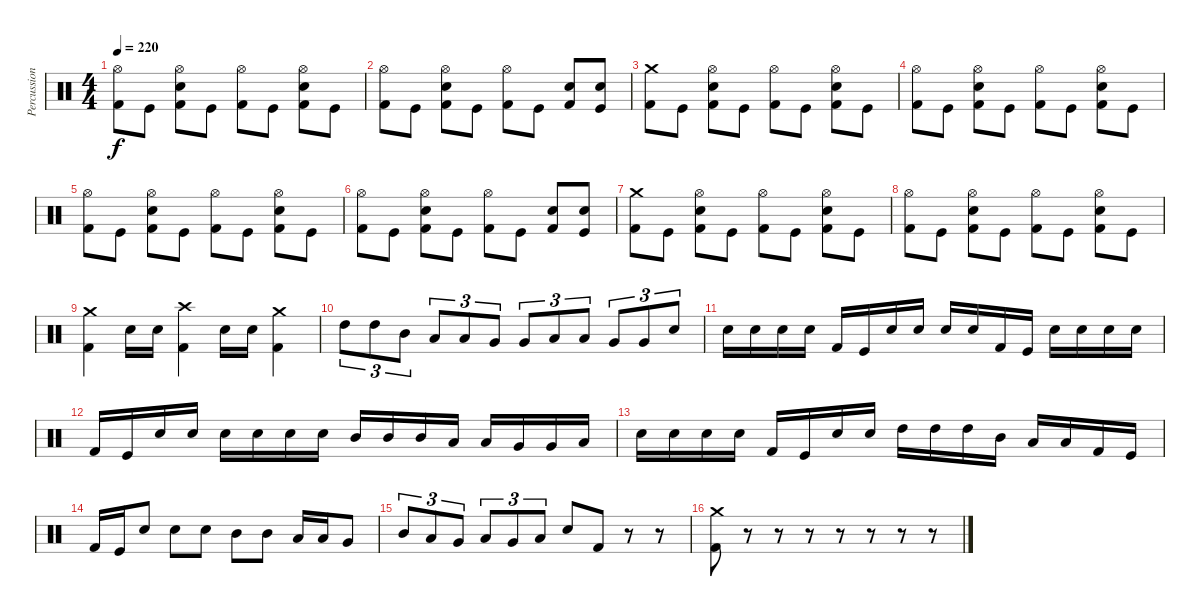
\track ("Percussion" "Percussion") {instrument percussion}
\staff {score}
\articulation defaults
\ts (4 4)
\tempo 220
\clef neutral
\ks c
("Hi-Hat (open)" "Kick (hit) 2").8{dy f} "Kick (hit)".8 ("Hi-Hat (open)" "Snare (hit) 2" "Kick (hit) 2").8 "Kick (hit)".8 ("Hi-Hat (open)" "Kick (hit) 2").8 "Kick (hit)".8 ("Hi-Hat (open)" "Snare (hit) 2" "Kick (hit) 2").8 "Kick (hit)".8 |
("Hi-Hat (open)" "Kick (hit) 2").8 "Kick (hit)".8 ("Hi-Hat (open)" "Snare (hit) 2" "Kick (hit) 2").8 "Kick (hit)".8 ("Hi-Hat (open)" "Kick (hit) 2").8 "Kick (hit)".8 ("Snare (hit) 2" "Kick (hit) 2").8 ("Snare (hit) 2" "Kick (hit)").8 |
("Crash medium (hit)" "Kick (hit) 2").8 "Kick (hit)".8 ("Hi-Hat (open)" "Snare (hit) 2" "Kick (hit) 2").8 "Kick (hit)".8 ("Hi-Hat (open)" "Kick (hit) 2").8 "Kick (hit)".8 ("Hi-Hat (open)" "Snare (hit) 2" "Kick (hit) 2").8 "Kick (hit)".8 |
("Hi-Hat (open)" "Kick (hit) 2").8 "Kick (hit)".8 ("Hi-Hat (open)" "Snare (hit) 2" "Kick (hit) 2").8 "Kick (hit)".8 ("Hi-Hat (open)" "Kick (hit) 2").8 "Kick (hit)".8 ("Hi-Hat (open)" "Snare (hit) 2" "Kick (hit) 2").8 "Kick (hit)".8 |
("Hi-Hat (open)" "Kick (hit) 2").8 "Kick (hit)".8 ("Hi-Hat (open)" "Snare (hit) 2" "Kick (hit) 2").8 "Kick (hit)".8 ("Hi-Hat (open)" "Kick (hit) 2").8 "Kick (hit)".8 ("Hi-Hat (open)" "Snare (hit) 2" "Kick (hit) 2").8 "Kick (hit)".8 |
("Hi-Hat (open)" "Kick (hit) 2").8 "Kick (hit)".8 ("Hi-Hat (open)" "Snare (hit) 2" "Kick (hit) 2").8 "Kick (hit)".8 ("Hi-Hat (open)" "Kick (hit) 2").8 "Kick (hit)".8 ("Snare (hit) 2" "Kick (hit) 2").8 ("Snare (hit) 2" "Kick (hit)").8 |
("Crash medium (hit)" "Kick (hit) 2").8 "Kick (hit)".8 ("Hi-Hat (open)" "Snare (hit) 2" "Kick (hit) 2").8 "Kick (hit)".8 ("Hi-Hat (open)" "Kick (hit) 2").8 "Kick (hit)".8 ("Hi-Hat (open)" "Snare (hit) 2" "Kick (hit) 2").8 "Kick (hit)".8 |
("Hi-Hat (open)" "Kick (hit) 2").8 "Kick (hit)".8 ("Hi-Hat (open)" "Snare (hit) 2" "Kick (hit) 2").8 "Kick (hit)".8 ("Hi-Hat (open)" "Kick (hit) 2").8 "Kick (hit)".8 ("Hi-Hat (open)" "Snare (hit) 2" "Kick (hit) 2").8 "Kick (hit)".8 |
("Crash medium (hit)" "Kick (hit) 2").4 "Snare (hit) 2".16 "Snare (hit) 2".16 ("Crash high (hit)" "Kick (hit) 2").4 "Snare (hit) 2".16 "Snare (hit) 2".16 ("Crash medium (hit)" "Kick (hit) 2").4 |
"High Tom (hit)".8{tu (3 2)} "High Tom (hit)".8{tu (3 2)} "Mid Tom (hit)".8{tu (3 2)} "Low Tom (hit)".8{tu (3 2)} "Low Tom (hit)".8{tu (3 2)} "Very Low Tom (hit)".8{tu (3 2)} "Very Low Tom (hit)".8{tu (3 2)} "Low Floor Tom (hit)".8{tu (3 2)} "Low Floor Tom (hit)".8{tu (3 2)} "Very Low Tom (hit)".8{tu (3 2)} "Very Low Tom (hit)".8{tu (3 2)} "Snare (hit) 2".8{tu (3 2)} |
"Snare (hit) 2".16 "Snare (hit) 2".16 "Snare (hit) 2".16 "Snare (hit) 2".16 "Kick (hit) 2".16 "Kick (hit)".16 "Snare (hit) 2".16 "Snare (hit) 2".16 "Snare (hit) 2".16 "Snare (hit) 2".16 "Kick (hit) 2".16 "Kick (hit)".16 "Snare (hit) 2".16 "Snare (hit) 2".16 "Snare (hit) 2".16 "Snare (hit) 2".16 |
"Kick (hit) 2".16 "Kick (hit)".16 "Snare (hit) 2".16 "Snare (hit) 2".16 "Snare (hit) 2".16 "Snare (hit) 2".16 "Snare (hit) 2".16 "Snare (hit) 2".16 "Mid Tom (hit)".16 "Mid Tom (hit)".16 "Mid Tom (hit)".16 "Low Tom (hit)".16 "Low Tom (hit)".16 "Very Low Tom (hit)".16 "Very Low Tom (hit)".16 "Low Tom (hit)".16 |
"Snare (hit) 2".16 "Snare (hit) 2".16 "Snare (hit) 2".16 "Snare (hit) 2".16 "Kick (hit) 2".16 "Kick (hit)".16 "Snare (hit) 2".16 "Snare (hit) 2".16 "High Tom (hit)".16 "High Tom (hit)".16 "High Tom (hit)".16 "Mid Tom (hit)".16 "Low Tom (hit)".16 "Low Tom (hit)".16 "Kick (hit) 2".16 "Kick (hit)".16 |
"Kick (hit) 2".16 "Kick (hit)".16 "Snare (hit) 2".8 "Snare (hit) 2".8 "Snare (hit) 2".8 "Mid Tom (hit)".8 "Mid Tom (hit)".8 "Low Tom (hit)".16 "Low Tom (hit)".16 "Very Low Tom (hit)".8 |
"Mid Tom (hit)".8{tu (3 2)} "Low Tom (hit)".8{tu (3 2)} "Very Low Tom (hit)".8{tu (3 2)} "Low Tom (hit)".8{tu (3 2)} "Very Low Tom (hit)".8{tu (3 2)} "Low Floor Tom (hit)".8{tu (3 2)} "Snare (hit) 2".8 "Kick (hit) 2".8 r.8 r.8 |
("Crash medium (hit)" "Kick (hit) 2").8 r.8 r.8 r.8 r.8 r.8 r.8 r.8
